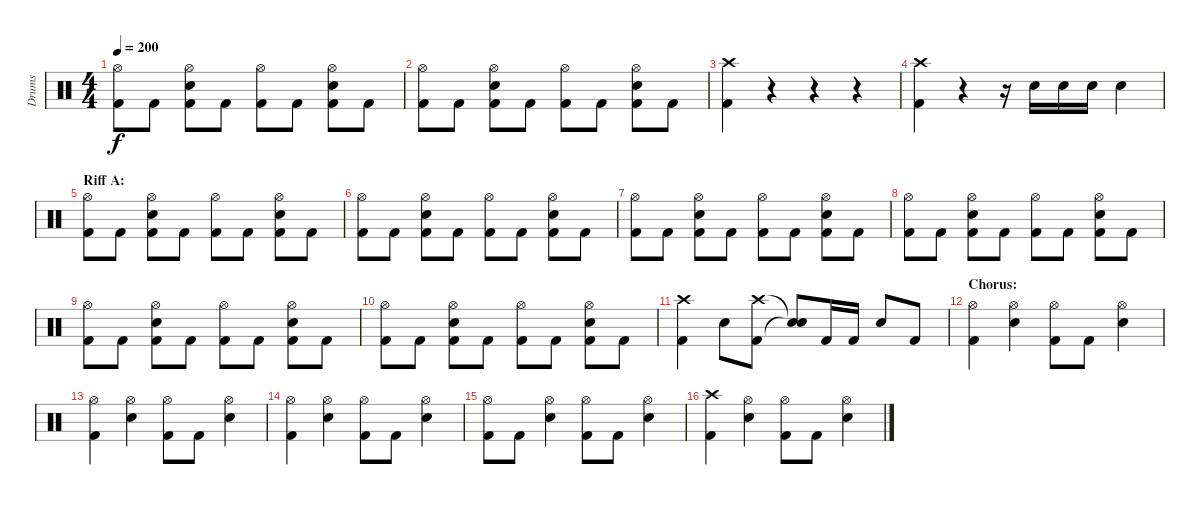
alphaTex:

\track ("Drums" "Drums") {instrument percussion}
\staff {score}
\articulation defaults
\ts (4 4)
\tempo 200
\clef neutral
\ks c
("Hi-Hat (open)" "Kick (hit) 2").8{dy f} "Kick (hit) 2".8 ("Hi-Hat (open)" "Electric Snare (hit)" "Kick (hit) 2").8 "Kick (hit) 2".8 ("Hi-Hat (open)" "Kick (hit) 2").8 "Kick (hit) 2".8 ("Hi-Hat (open)" "Electric Snare (hit)" "Kick (hit) 2").8 "Kick (hit) 2".8 |
("Hi-Hat (open)" "Kick (hit) 2").8 "Kick (hit) 2".8 ("Hi-Hat (open)" "Electric Snare (hit)" "Kick (hit) 2").8 "Kick (hit) 2".8 ("Hi-Hat (open)" "Kick (hit) 2").8 "Kick (hit) 2".8 ("Hi-Hat (open)" "Electric Snare (hit)" "Kick (hit) 2").8 "Kick (hit) 2".8 |
("Crash high (hit)" "Kick (hit) 2").4 r.4 r.4 r.4 |
("Crash high (hit)" "Kick (hit) 2").4 r.4 r.16 "Electric Snare (hit)".16 "Electric Snare (hit)".16 "Electric Snare (hit)".16 "Electric Snare (hit)".4 |
\section ("" "Riff A:")
("Hi-Hat (open)" "Kick (hit) 2").8 "Kick (hit) 2".8 ("Hi-Hat (open)" "Electric Snare (hit)" "Kick (hit) 2").8 "Kick (hit) 2".8 ("Hi-Hat (open)" "Kick (hit) 2").8 "Kick (hit) 2".8 ("Hi-Hat (open)" "Electric Snare (hit)" "Kick (hit) 2").8 "Kick (hit) 2".8 |
("Hi-Hat (open)" "Kick (hit) 2").8 "Kick (hit) 2".8 ("Hi-Hat (open)" "Electric Snare (hit)" "Kick (hit) 2").8 "Kick (hit) 2".8 ("Hi-Hat (open)" "Kick (hit) 2").8 "Kick (hit) 2".8 ("Hi-Hat (open)" "Electric Snare (hit)" "Kick (hit) 2").8 "Kick (hit) 2".8 |
("Hi-Hat (open)" "Kick (hit) 2").8 "Kick (hit) 2".8 ("Hi-Hat (open)" "Electric Snare (hit)" "Kick (hit) 2").8 "Kick (hit) 2".8 ("Hi-Hat (open)" "Kick (hit) 2").8 "Kick (hit) 2".8 ("Hi-Hat (open)" "Electric Snare (hit)" "Kick (hit) 2").8 "Kick (hit) 2".8 |
("Hi-Hat (open)" "Kick (hit) 2").8 "Kick (hit) 2".8 ("Hi-Hat (open)" "Electric Snare (hit)" "Kick (hit) 2").8 "Kick (hit) 2".8 ("Hi-Hat (open)" "Kick (hit) 2").8 "Kick (hit) 2".8 ("Hi-Hat (open)" "Electric Snare (hit)" "Kick (hit) 2").8 "Kick (hit) 2".8 |
("Hi-Hat (open)" "Kick (hit) 2").8 "Kick (hit) 2".8 ("Hi-Hat (open)" "Electric Snare (hit)" "Kick (hit) 2").8 "Kick (hit) 2".8 ("Hi-Hat (open)" "Kick (hit) 2").8 "Kick (hit) 2".8 ("Hi-Hat (open)" "Electric Snare (hit)" "Kick (hit) 2").8 "Kick (hit) 2".8 |
("Hi-Hat (open)" "Kick (hit) 2").8 "Kick (hit) 2".8 ("Hi-Hat (open)" "Electric Snare (hit)" "Kick (hit) 2").8 "Kick (hit) 2".8 ("Hi-Hat (open)" "Kick (hit) 2").8 "Kick (hit) 2".8 ("Hi-Hat (open)" "Electric Snare (hit)" "Kick (hit) 2").8 "Kick (hit) 2".8 |
("Crash high (hit)" "Kick (hit) 2").4 "Electric Snare (hit)".8 ("Crash high (hit)" "Kick (hit) 2").8 ("Snare (hit)"{t} "Snare (hit)"{t}).8 "Kick (hit) 2".16 "Kick (hit) 2".16 "Electric Snare (hit)".8 "Kick (hit) 2".8 |
\section ("" "Chorus:")
("Hi-Hat (open)" "Kick (hit) 2").4 ("Hi-Hat (open)" "Electric Snare (hit)").4 ("Hi-Hat (open)" "Kick (hit) 2").8 "Kick (hit) 2".8 ("Hi-Hat (open)" "Electric Snare (hit)").4 |
("Hi-Hat (open)" "Kick (hit) 2").4 ("Hi-Hat (open)" "Electric Snare (hit)").4 ("Hi-Hat (open)" "Kick (hit) 2").8 "Kick (hit) 2".8 ("Hi-Hat (open)" "Electric Snare (hit)").4 |
("Hi-Hat (open)" "Kick (hit) 2").4 ("Hi-Hat (open)" "Electric Snare (hit)").4 ("Hi-Hat (open)" "Kick (hit) 2").8 "Kick (hit) 2".8 ("Hi-Hat (open)" "Electric Snare (hit)").4 |
("Hi-Hat (open)" "Kick (hit) 2").8 "Kick (hit) 2".8 ("Hi-Hat (open)" "Electric Snare (hit)").4 ("Hi-Hat (open)" "Kick (hit) 2").8 "Kick (hit) 2".8 ("Hi-Hat (open)" "Electric Snare (hit)").4 |
("Crash high (hit)" "Kick (hit) 2").4 ("Hi-Hat (open)" "Electric Snare (hit)").4 ("Hi-Hat (open)" "Kick (hit) 2").8 "Kick (hit) 2".8 ("Hi-Hat (open)" "Electric Snare (hit)").4
